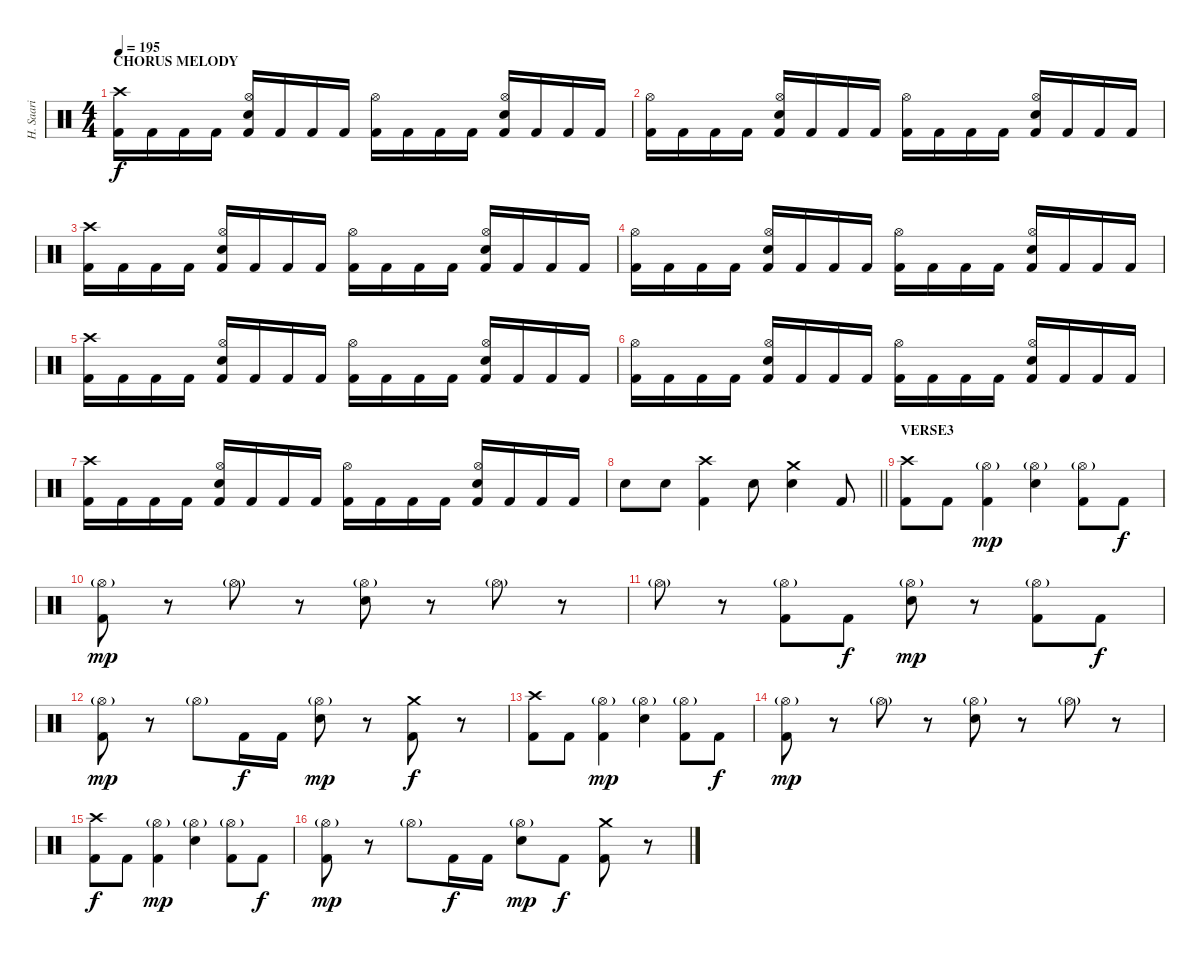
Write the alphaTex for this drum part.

\track ("H. Saari" "H. Saari") {instrument percussion}
\staff {score}
\articulation defaults
\ts (4 4)
\section ("" "CHORUS MELODY")
\tempo 195
\clef neutral
\ks c
("Crash high (hit)" "Kick (hit) 2").16{dy f} "Kick (hit) 2".16 "Kick (hit) 2".16 "Kick (hit) 2".16 ("Hi-Hat (open)" "Electric Snare (hit)" "Kick (hit) 2").16 "Kick (hit) 2".16 "Kick (hit) 2".16 "Kick (hit) 2".16 ("Hi-Hat (open)" "Kick (hit) 2").16 "Kick (hit) 2".16 "Kick (hit) 2".16 "Kick (hit) 2".16 ("Hi-Hat (open)" "Electric Snare (hit)" "Kick (hit) 2").16 "Kick (hit) 2".16 "Kick (hit) 2".16 "Kick (hit) 2".16 |
("Hi-Hat (open)" "Kick (hit) 2").16 "Kick (hit) 2".16 "Kick (hit) 2".16 "Kick (hit) 2".16 ("Hi-Hat (open)" "Electric Snare (hit)" "Kick (hit) 2").16 "Kick (hit) 2".16 "Kick (hit) 2".16 "Kick (hit) 2".16 ("Hi-Hat (open)" "Kick (hit) 2").16 "Kick (hit) 2".16 "Kick (hit) 2".16 "Kick (hit) 2".16 ("Hi-Hat (open)" "Electric Snare (hit)" "Kick (hit) 2").16 "Kick (hit) 2".16 "Kick (hit) 2".16 "Kick (hit) 2".16 |
("Crash high (hit)" "Kick (hit) 2").16 "Kick (hit) 2".16 "Kick (hit) 2".16 "Kick (hit) 2".16 ("Hi-Hat (open)" "Electric Snare (hit)" "Kick (hit) 2").16 "Kick (hit) 2".16 "Kick (hit) 2".16 "Kick (hit) 2".16 ("Hi-Hat (open)" "Kick (hit) 2").16 "Kick (hit) 2".16 "Kick (hit) 2".16 "Kick (hit) 2".16 ("Hi-Hat (open)" "Electric Snare (hit)" "Kick (hit) 2").16 "Kick (hit) 2".16 "Kick (hit) 2".16 "Kick (hit) 2".16 |
("Hi-Hat (open)" "Kick (hit) 2").16 "Kick (hit) 2".16 "Kick (hit) 2".16 "Kick (hit) 2".16 ("Hi-Hat (open)" "Electric Snare (hit)" "Kick (hit) 2").16 "Kick (hit) 2".16 "Kick (hit) 2".16 "Kick (hit) 2".16 ("Hi-Hat (open)" "Kick (hit) 2").16 "Kick (hit) 2".16 "Kick (hit) 2".16 "Kick (hit) 2".16 ("Hi-Hat (open)" "Electric Snare (hit)" "Kick (hit) 2").16 "Kick (hit) 2".16 "Kick (hit) 2".16 "Kick (hit) 2".16 |
("Crash high (hit)" "Kick (hit) 2").16 "Kick (hit) 2".16 "Kick (hit) 2".16 "Kick (hit) 2".16 ("Hi-Hat (open)" "Electric Snare (hit)" "Kick (hit) 2").16 "Kick (hit) 2".16 "Kick (hit) 2".16 "Kick (hit) 2".16 ("Hi-Hat (open)" "Kick (hit) 2").16 "Kick (hit) 2".16 "Kick (hit) 2".16 "Kick (hit) 2".16 ("Hi-Hat (open)" "Electric Snare (hit)" "Kick (hit) 2").16 "Kick (hit) 2".16 "Kick (hit) 2".16 "Kick (hit) 2".16 |
("Hi-Hat (open)" "Kick (hit) 2").16 "Kick (hit) 2".16 "Kick (hit) 2".16 "Kick (hit) 2".16 ("Hi-Hat (open)" "Electric Snare (hit)" "Kick (hit) 2").16 "Kick (hit) 2".16 "Kick (hit) 2".16 "Kick (hit) 2".16 ("Hi-Hat (open)" "Kick (hit) 2").16 "Kick (hit) 2".16 "Kick (hit) 2".16 "Kick (hit) 2".16 ("Hi-Hat (open)" "Electric Snare (hit)" "Kick (hit) 2").16 "Kick (hit) 2".16 "Kick (hit) 2".16 "Kick (hit) 2".16 |
("Crash high (hit)" "Kick (hit) 2").16 "Kick (hit) 2".16 "Kick (hit) 2".16 "Kick (hit) 2".16 ("Hi-Hat (open)" "Electric Snare (hit)" "Kick (hit) 2").16 "Kick (hit) 2".16 "Kick (hit) 2".16 "Kick (hit) 2".16 ("Hi-Hat (open)" "Kick (hit) 2").16 "Kick (hit) 2".16 "Kick (hit) 2".16 "Kick (hit) 2".16 ("Hi-Hat (open)" "Electric Snare (hit)" "Kick (hit) 2").16 "Kick (hit) 2".16 "Kick (hit) 2".16 "Kick (hit) 2".16 |
\barLineRight lightlight "Electric Snare (hit)".8 "Electric Snare (hit)".8
("Crash high (hit)" "Kick (hit) 2").4 "Electric Snare (hit)".8 ("Crash medium (hit)" "Electric Snare (hit)").4 "Kick (hit) 2".8 |
\section ("" "VERSE3")
("Crash high (hit)" "Kick (hit) 2").8 "Kick (hit) 2".8 ("Hi-Hat (open)"{g} "Kick (hit) 2").4{dy mp} ("Hi-Hat (open)"{g} "Electric Snare (hit)").4 ("Hi-Hat (open)"{g} "Kick (hit) 2").8 "Kick (hit) 2".8{dy f} |
("Hi-Hat (open)"{g} "Kick (hit) 2").8{dy mp} r.8 "Hi-Hat (open)"{g}.8 r.8 ("Hi-Hat (open)"{g} "Electric Snare (hit)").8 r.8 "Hi-Hat (open)"{g}.8 r.8 |
"Hi-Hat (open)"{g}.8 r.8 ("Hi-Hat (open)"{g} "Kick (hit) 2").8 "Kick (hit) 2".8{dy f} ("Hi-Hat (open)"{g} "Electric Snare (hit)").8{dy mp} r.8 ("Hi-Hat (open)"{g} "Kick (hit) 2").8 "Kick (hit) 2".8{dy f} |
("Hi-Hat (open)"{g} "Kick (hit) 2").8{dy mp} r.8 "Hi-Hat (open)"{g}.8 "Kick (hit) 2".16{dy f} "Kick (hit) 2".16 ("Hi-Hat (open)"{g} "Electric Snare (hit)").8{dy mp} r.8 ("Crash medium (hit)" "Kick (hit) 2").8{dy f} r.8 |
("Crash high (hit)" "Kick (hit) 2").8 "Kick (hit) 2".8 ("Hi-Hat (open)"{g} "Kick (hit) 2").4{dy mp} ("Hi-Hat (open)"{g} "Electric Snare (hit)").4 ("Hi-Hat (open)"{g} "Kick (hit) 2").8 "Kick (hit) 2".8{dy f} |
("Hi-Hat (open)"{g} "Kick (hit) 2").8{dy mp} r.8 "Hi-Hat (open)"{g}.8 r.8 ("Hi-Hat (open)"{g} "Electric Snare (hit)").8 r.8 "Hi-Hat (open)"{g}.8 r.8 |
("Crash high (hit)" "Kick (hit) 2").8{dy f} "Kick (hit) 2".8 ("Hi-Hat (open)"{g} "Kick (hit) 2").4{dy mp} ("Hi-Hat (open)"{g} "Electric Snare (hit)").4 ("Hi-Hat (open)"{g} "Kick (hit) 2").8 "Kick (hit) 2".8{dy f} |
("Hi-Hat (open)"{g} "Kick (hit) 2").8{dy mp} r.8 "Hi-Hat (open)"{g}.8 "Kick (hit) 2".16{dy f} "Kick (hit) 2".16 ("Hi-Hat (open)"{g} "Electric Snare (hit)").8{dy mp} "Kick (hit) 2".8{dy f} ("Crash medium (hit)" "Kick (hit) 2").8 r.8
